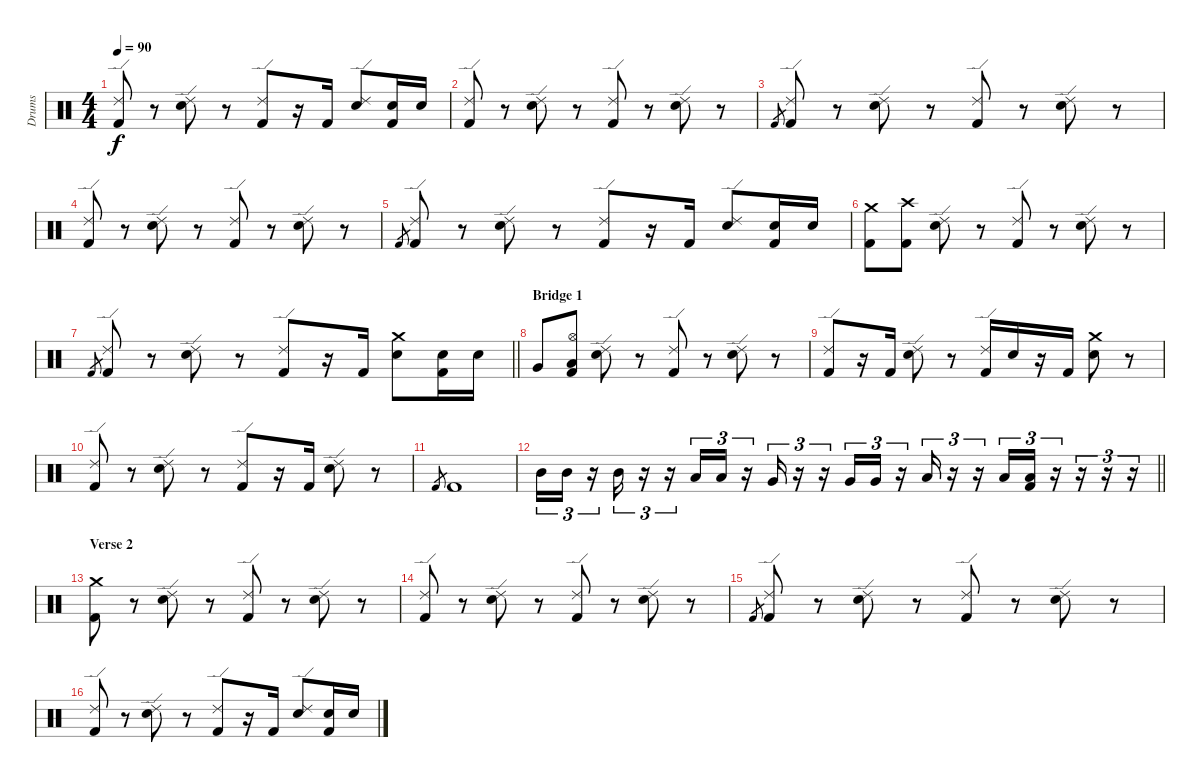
\track ("Drums" "Drums") {instrument percussion}
\staff {score}
\articulation defaults
\ts (4 4)
\tempo 90
\clef neutral
\ks c
("Ride (edge) 2" "Kick (hit) 2").8{dy f} r.8 ("Ride (edge) 2" "Snare (hit) 2").8 r.8 ("Ride (edge) 2" "Kick (hit) 2").8 r.16 "Kick (hit) 2".16 ("Ride (edge) 2" "Snare (hit) 2").8 ("Snare (hit) 2" "Kick (hit) 2").16 "Snare (hit) 2".16 |
("Ride (edge) 2" "Kick (hit) 2").8 r.8 ("Ride (edge) 2" "Snare (hit) 2").8 r.8 ("Ride (edge) 2" "Kick (hit) 2").8 r.8 ("Ride (edge) 2" "Snare (hit) 2").8 r.8 |
"Kick (hit) 2".8{gr} ("Ride (edge) 2" "Kick (hit) 2").8 r.8 ("Ride (edge) 2" "Snare (hit) 2").8 r.8 ("Ride (edge) 2" "Kick (hit) 2").8 r.8 ("Ride (edge) 2" "Snare (hit) 2").8 r.8 |
("Ride (edge) 2" "Kick (hit) 2").8 r.8 ("Ride (edge) 2" "Snare (hit) 2").8 r.8 ("Ride (edge) 2" "Kick (hit) 2").8 r.8 ("Ride (edge) 2" "Snare (hit) 2").8 r.8 |
"Kick (hit) 2".8{gr} ("Ride (edge) 2" "Kick (hit) 2").8 r.8 ("Ride (edge) 2" "Snare (hit) 2").8 r.8 ("Ride (edge) 2" "Kick (hit) 2").8 r.16 "Kick (hit) 2".16 ("Ride (edge) 2" "Snare (hit) 2").8 ("Snare (hit) 2" "Kick (hit) 2").16 "Snare (hit) 2".16 |
("Crash medium (hit)" "Kick (hit) 2").8 ("Crash high (hit)" "Kick (hit) 2").8 ("Ride (edge) 2" "Snare (hit) 2").8 r.8 ("Ride (edge) 2" "Kick (hit) 2").8 r.8 ("Ride (edge) 2" "Snare (hit) 2").8 r.8 |
\barLineRight lightlight "Kick (hit) 2".8{gr}
("Ride (edge) 2" "Kick (hit) 2").8 r.8 ("Ride (edge) 2" "Snare (hit) 2").8 r.8 ("Ride (edge) 2" "Kick (hit) 2").8 r.16 "Kick (hit) 2".16 ("Crash medium (hit)" "Snare (hit) 2").8 ("Snare (hit) 2" "Kick (hit) 2").16 "Snare (hit) 2".16 |
\section ("" "Bridge 1")
"Very Low Tom (hit)".8 ("Hi-Hat (open)" "Low Floor Tom (hit)" "Kick (hit) 2").8 ("Ride (edge) 2" "Snare (hit) 2").8 r.8 ("Ride (edge) 2" "Kick (hit) 2").8 r.8 ("Ride (edge) 2" "Snare (hit) 2").8 r.8 |
("Ride (edge) 2" "Kick (hit) 2").8 r.16 "Kick (hit) 2".16 ("Ride (edge) 2" "Snare (hit) 2").8 r.8 ("Ride (edge) 2" "Kick (hit) 2").16 "Snare (hit) 2".16 r.16 "Kick (hit) 2".16 ("Crash medium (hit)" "Snare (hit) 2").8 r.8 |
("Ride (edge) 2" "Kick (hit) 2").8 r.8 ("Ride (edge) 2" "Snare (hit) 2").8 r.8 ("Ride (edge) 2" "Kick (hit) 2").8 r.16 "Kick (hit) 2".16 ("Ride (edge) 2" "Snare (hit) 2").8 r.8 |
"Kick (hit) 2".8{gr} "Kick (hit) 2".1 |
\barLineRight lightlight "Mid Tom (hit)".16{tu (3 2)} "Mid Tom (hit)".16{tu (3 2)}
r.16{tu (3 2)} "Mid Tom (hit)".16{tu (3 2)} r.16{tu (3 2)} r.16{tu (3 2)} "Low Tom (hit)".16{tu (3 2)} "Low Tom (hit)".16{tu (3 2)} r.16{tu (3 2)} "Very Low Tom (hit)".16{tu (3 2)} r.16{tu (3 2)} r.16{tu (3 2)} "Very Low Tom (hit)".16{tu (3 2)} "Very Low Tom (hit)".16{tu (3 2)} r.16{tu (3 2)} "Low Floor Tom (hit)".16{tu (3 2)} r.16{tu (3 2)} r.16{tu (3 2)} "Low Floor Tom (hit)".16{tu (3 2)} ("Low Floor Tom (hit)" "Kick (hit) 2").16{tu (3 2)} r.16{tu (3 2)} r.16{tu (3 2)} r.16{tu (3 2)} r.16{tu (3 2)} |
\section ("" "Verse 2")
("Crash medium (hit)" "Kick (hit) 2").8 r.8 ("Ride (edge) 2" "Snare (hit) 2").8 r.8 ("Ride (edge) 2" "Kick (hit) 2").8 r.8 ("Ride (edge) 2" "Snare (hit) 2").8 r.8 |
("Ride (edge) 2" "Kick (hit) 2").8 r.8 ("Ride (edge) 2" "Snare (hit) 2").8 r.8 ("Ride (edge) 2" "Kick (hit) 2").8 r.8 ("Ride (edge) 2" "Snare (hit) 2").8 r.8 |
"Kick (hit) 2".8{gr} ("Ride (edge) 2" "Kick (hit) 2").8 r.8 ("Ride (edge) 2" "Snare (hit) 2").8 r.8 ("Ride (edge) 2" "Kick (hit) 2").8 r.8 ("Ride (edge) 2" "Snare (hit) 2").8 r.8 |
("Ride (edge) 2" "Kick (hit) 2").8 r.8 ("Ride (edge) 2" "Snare (hit) 2").8 r.8 ("Ride (edge) 2" "Kick (hit) 2").8 r.16 "Kick (hit) 2".16 ("Ride (edge) 2" "Snare (hit) 2").8 ("Snare (hit) 2" "Kick (hit) 2").16 "Snare (hit) 2".16
